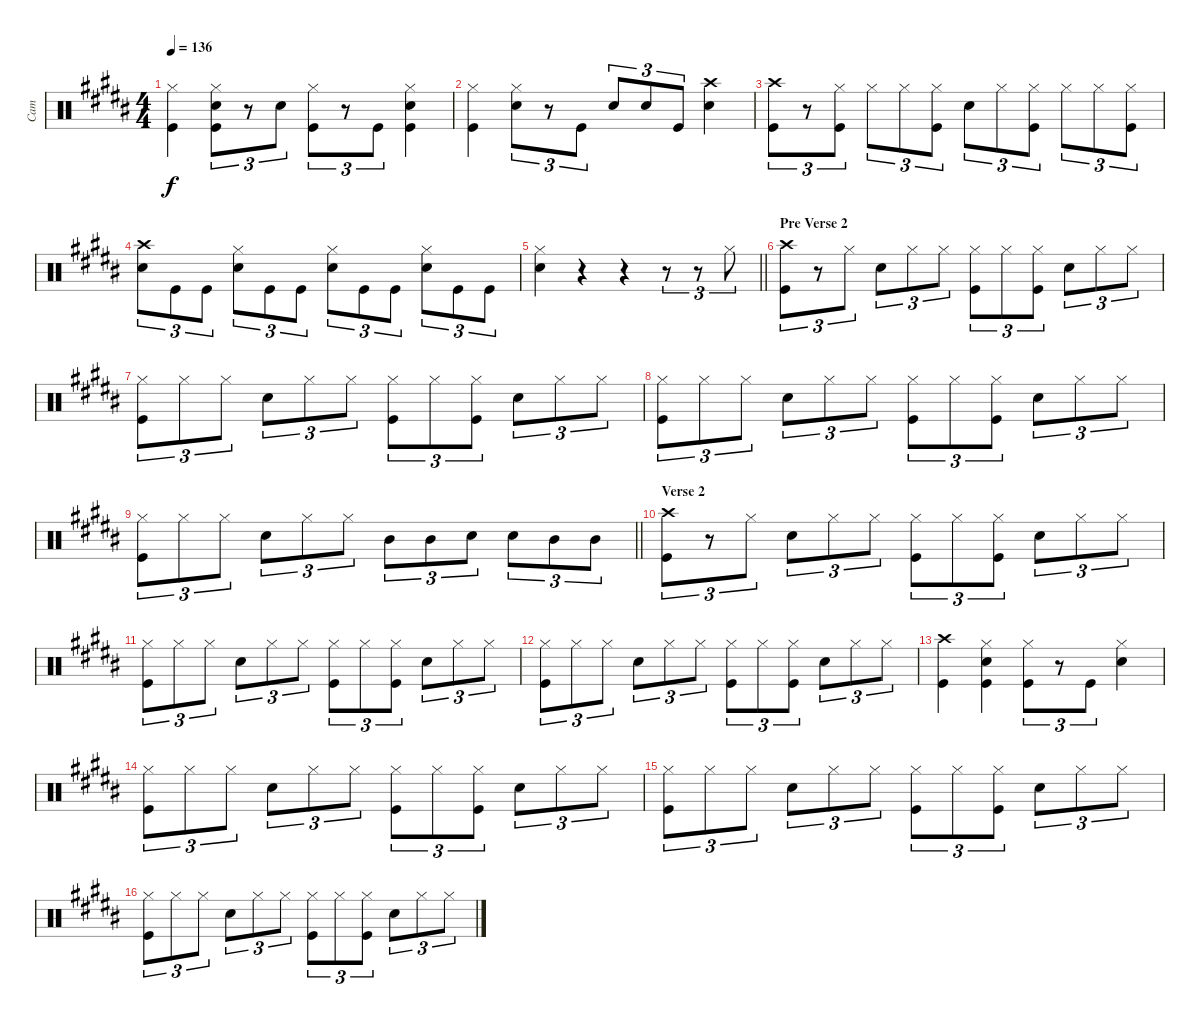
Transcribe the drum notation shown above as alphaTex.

\track ("Cam" "Cam") {instrument percussion}
\staff {score}
\articulation defaults
\ts (4 4)
\tempo 136
\clef neutral
\ks b
("Hi-Hat (closed)" "Kick (hit)").4{dy f} ("Snare (hit) 2" "Hi-Hat (closed)" "Kick (hit)").8{tu (3 2)} r.8{tu (3 2)} "Snare (hit) 2".8{tu (3 2)} ("Hi-Hat (closed)" "Kick (hit)").8{tu (3 2)} r.8{tu (3 2)} "Kick (hit)".8{tu (3 2)} ("Snare (hit) 2" "Hi-Hat (closed)" "Kick (hit)").4 |
("Hi-Hat (closed)" "Kick (hit)").4 ("Snare (hit) 2" "Hi-Hat (closed)").8{tu (3 2)} r.8{tu (3 2)} "Kick (hit)".8{tu (3 2)} "Snare (hit) 2".8{tu (3 2)} "Snare (hit) 2".8{tu (3 2)} "Kick (hit)".8{tu (3 2)} ("Crash high (hit)" "Snare (hit) 2").4 |
("Crash high (hit)" "Kick (hit)").8{tu (3 2)} r.8{tu (3 2)} ("Hi-Hat (closed)" "Kick (hit)").8{tu (3 2)} "Hi-Hat (closed)".8{tu (3 2)} "Hi-Hat (closed)".8{tu (3 2)} ("Hi-Hat (closed)" "Kick (hit)").8{tu (3 2)} "Snare (hit) 2".8{tu (3 2)} "Hi-Hat (closed)".8{tu (3 2)} ("Hi-Hat (closed)" "Kick (hit)").8{tu (3 2)} "Hi-Hat (closed)".8{tu (3 2)} "Hi-Hat (closed)".8{tu (3 2)} ("Hi-Hat (closed)" "Kick (hit)").8{tu (3 2)} |
("Crash high (hit)" "Snare (hit) 2").8{tu (3 2)} "Kick (hit)".8{tu (3 2)} "Kick (hit)".8{tu (3 2)} ("Snare (hit) 2" "Hi-Hat (closed)").8{tu (3 2)} "Kick (hit)".8{tu (3 2)} "Kick (hit)".8{tu (3 2)} ("Snare (hit) 2" "Hi-Hat (closed)").8{tu (3 2)} "Kick (hit)".8{tu (3 2)} "Kick (hit)".8{tu (3 2)} ("Snare (hit) 2" "Hi-Hat (closed)").8{tu (3 2)} "Kick (hit)".8{tu (3 2)} "Kick (hit)".8{tu (3 2)} |
\barLineRight lightlight
("Snare (hit) 2" "Hi-Hat (closed)").4 r.4 r.4 r.8{tu (3 2)} r.8{tu (3 2)} "Hi-Hat (closed)".8{tu (3 2)} |
\section ("" "Pre Verse 2")
("Crash high (hit)" "Kick (hit)").8{tu (3 2)} r.8{tu (3 2)} "Hi-Hat (closed)".8{tu (3 2)} "Snare (hit) 2".8{tu (3 2)} "Hi-Hat (closed)".8{tu (3 2)} "Hi-Hat (closed)".8{tu (3 2)} ("Hi-Hat (closed)" "Kick (hit)").8{tu (3 2)} "Hi-Hat (closed)".8{tu (3 2)} ("Hi-Hat (closed)" "Kick (hit)").8{tu (3 2)} "Snare (hit) 2".8{tu (3 2)} "Hi-Hat (closed)".8{tu (3 2)} "Hi-Hat (closed)".8{tu (3 2)} |
("Hi-Hat (closed)" "Kick (hit)").8{tu (3 2)} "Hi-Hat (closed)".8{tu (3 2)} "Hi-Hat (closed)".8{tu (3 2)} "Snare (hit) 2".8{tu (3 2)} "Hi-Hat (closed)".8{tu (3 2)} "Hi-Hat (closed)".8{tu (3 2)} ("Hi-Hat (closed)" "Kick (hit)").8{tu (3 2)} "Hi-Hat (closed)".8{tu (3 2)} ("Hi-Hat (closed)" "Kick (hit)").8{tu (3 2)} "Snare (hit) 2".8{tu (3 2)} "Hi-Hat (closed)".8{tu (3 2)} "Hi-Hat (closed)".8{tu (3 2)} |
("Hi-Hat (closed)" "Kick (hit)").8{tu (3 2)} "Hi-Hat (closed)".8{tu (3 2)} "Hi-Hat (closed)".8{tu (3 2)} "Snare (hit) 2".8{tu (3 2)} "Hi-Hat (closed)".8{tu (3 2)} "Hi-Hat (closed)".8{tu (3 2)} ("Hi-Hat (closed)" "Kick (hit)").8{tu (3 2)} "Hi-Hat (closed)".8{tu (3 2)} ("Hi-Hat (closed)" "Kick (hit)").8{tu (3 2)} "Snare (hit) 2".8{tu (3 2)} "Hi-Hat (closed)".8{tu (3 2)} "Hi-Hat (closed)".8{tu (3 2)} |
\barLineRight lightlight
("Hi-Hat (closed)" "Kick (hit)").8{tu (3 2)} "Hi-Hat (closed)".8{tu (3 2)} "Hi-Hat (closed)".8{tu (3 2)} "Snare (hit) 2".8{tu (3 2)} "Hi-Hat (closed)".8{tu (3 2)} "Hi-Hat (closed)".8{tu (3 2)} "Mid Tom (hit)".8{tu (3 2)} "Mid Tom (hit)".8{tu (3 2)} "Snare (hit) 2".8{tu (3 2)} "Snare (hit) 2".8{tu (3 2)} "Mid Tom (hit)".8{tu (3 2)} "Mid Tom (hit)".8{tu (3 2)} |
\section ("" "Verse 2")
("Crash high (hit)" "Kick (hit)").8{tu (3 2)} r.8{tu (3 2)} "Hi-Hat (closed)".8{tu (3 2)} "Snare (hit) 2".8{tu (3 2)} "Hi-Hat (closed)".8{tu (3 2)} "Hi-Hat (closed)".8{tu (3 2)} ("Hi-Hat (closed)" "Kick (hit)").8{tu (3 2)} "Hi-Hat (closed)".8{tu (3 2)} ("Hi-Hat (closed)" "Kick (hit)").8{tu (3 2)} "Snare (hit) 2".8{tu (3 2)} "Hi-Hat (closed)".8{tu (3 2)} "Hi-Hat (closed)".8{tu (3 2)} |
("Hi-Hat (closed)" "Kick (hit)").8{tu (3 2)} "Hi-Hat (closed)".8{tu (3 2)} "Hi-Hat (closed)".8{tu (3 2)} "Snare (hit) 2".8{tu (3 2)} "Hi-Hat (closed)".8{tu (3 2)} "Hi-Hat (closed)".8{tu (3 2)} ("Hi-Hat (closed)" "Kick (hit)").8{tu (3 2)} "Hi-Hat (closed)".8{tu (3 2)} ("Hi-Hat (closed)" "Kick (hit)").8{tu (3 2)} "Snare (hit) 2".8{tu (3 2)} "Hi-Hat (closed)".8{tu (3 2)} "Hi-Hat (closed)".8{tu (3 2)} |
("Hi-Hat (closed)" "Kick (hit)").8{tu (3 2)} "Hi-Hat (closed)".8{tu (3 2)} "Hi-Hat (closed)".8{tu (3 2)} "Snare (hit) 2".8{tu (3 2)} "Hi-Hat (closed)".8{tu (3 2)} "Hi-Hat (closed)".8{tu (3 2)} ("Hi-Hat (closed)" "Kick (hit)").8{tu (3 2)} "Hi-Hat (closed)".8{tu (3 2)} ("Hi-Hat (closed)" "Kick (hit)").8{tu (3 2)} "Snare (hit) 2".8{tu (3 2)} "Hi-Hat (closed)".8{tu (3 2)} "Hi-Hat (closed)".8{tu (3 2)} |
("Crash high (hit)" "Kick (hit)").4 ("Snare (hit) 2" "Hi-Hat (closed)" "Kick (hit)").4 ("Hi-Hat (closed)" "Kick (hit)").8{tu (3 2)} r.8{tu (3 2)} "Kick (hit)".8{tu (3 2)} ("Snare (hit) 2" "Hi-Hat (closed)").4 |
("Hi-Hat (closed)" "Kick (hit)").8{tu (3 2)} "Hi-Hat (closed)".8{tu (3 2)} "Hi-Hat (closed)".8{tu (3 2)} "Snare (hit) 2".8{tu (3 2)} "Hi-Hat (closed)".8{tu (3 2)} "Hi-Hat (closed)".8{tu (3 2)} ("Hi-Hat (closed)" "Kick (hit)").8{tu (3 2)} "Hi-Hat (closed)".8{tu (3 2)} ("Hi-Hat (closed)" "Kick (hit)").8{tu (3 2)} "Snare (hit) 2".8{tu (3 2)} "Hi-Hat (closed)".8{tu (3 2)} "Hi-Hat (closed)".8{tu (3 2)} |
("Hi-Hat (closed)" "Kick (hit)").8{tu (3 2)} "Hi-Hat (closed)".8{tu (3 2)} "Hi-Hat (closed)".8{tu (3 2)} "Snare (hit) 2".8{tu (3 2)} "Hi-Hat (closed)".8{tu (3 2)} "Hi-Hat (closed)".8{tu (3 2)} ("Hi-Hat (closed)" "Kick (hit)").8{tu (3 2)} "Hi-Hat (closed)".8{tu (3 2)} ("Hi-Hat (closed)" "Kick (hit)").8{tu (3 2)} "Snare (hit) 2".8{tu (3 2)} "Hi-Hat (closed)".8{tu (3 2)} "Hi-Hat (closed)".8{tu (3 2)} |
("Hi-Hat (closed)" "Kick (hit)").8{tu (3 2)} "Hi-Hat (closed)".8{tu (3 2)} "Hi-Hat (closed)".8{tu (3 2)} "Snare (hit) 2".8{tu (3 2)} "Hi-Hat (closed)".8{tu (3 2)} "Hi-Hat (closed)".8{tu (3 2)} ("Hi-Hat (closed)" "Kick (hit)").8{tu (3 2)} "Hi-Hat (closed)".8{tu (3 2)} ("Hi-Hat (closed)" "Kick (hit)").8{tu (3 2)} "Snare (hit) 2".8{tu (3 2)} "Hi-Hat (closed)".8{tu (3 2)} "Hi-Hat (closed)".8{tu (3 2)}
